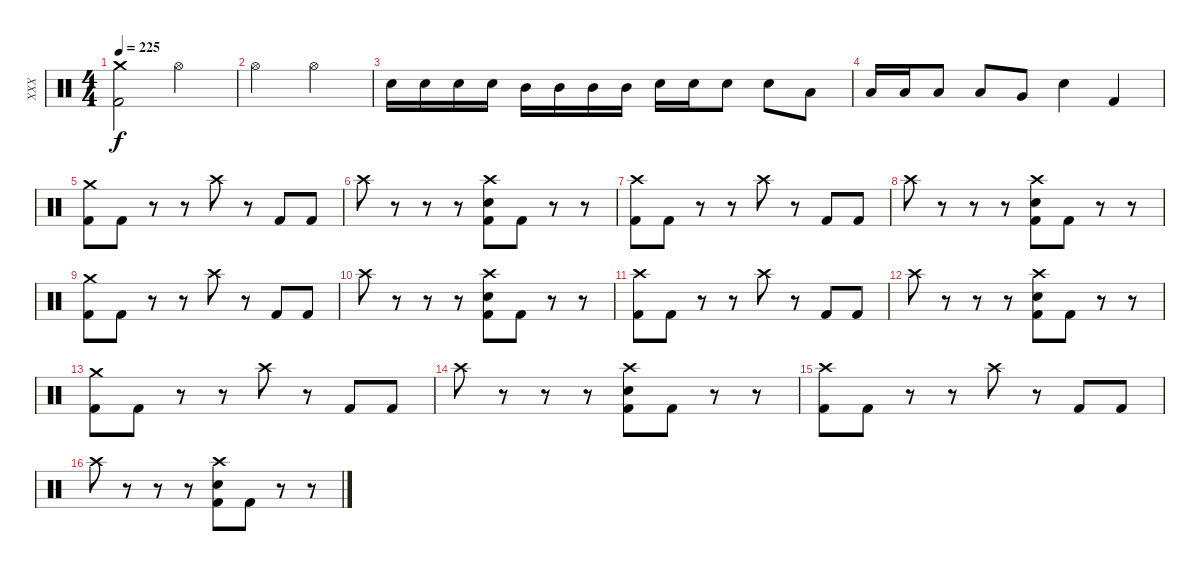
\track ("XXX" "XXX") {instrument percussion}
\staff {score}
\articulation defaults
\ts (4 4)
\tempo 225
\clef neutral
\ks c
("Crash medium (hit)" "Kick (hit) 2").2{dy f} "Hi-Hat (open)".2 |
"Hi-Hat (open)".2 "Hi-Hat (open)".2 |
"Electric Snare (hit)".16 "Electric Snare (hit)".16 "Electric Snare (hit)".16 "Electric Snare (hit)".16 "Mid Tom (hit)".16 "Mid Tom (hit)".16 "Mid Tom (hit)".16 "Mid Tom (hit)".16 "Electric Snare (hit)".16 "Electric Snare (hit)".16 "Electric Snare (hit)".8 "Electric Snare (hit)".8 "Low Tom (hit)".8 |
"Low Tom (hit)".16 "Low Tom (hit)".16 "Low Tom (hit)".8 "Low Tom (hit)".8 "Very Low Tom (hit)".8 "Electric Snare (hit)".4 "Kick (hit) 2".4 |
("Crash medium (hit)" "Kick (hit) 2").8 "Kick (hit) 2".8 r.8 r.8 "Crash high (hit)".8 r.8 "Kick (hit) 2".8 "Kick (hit) 2".8 |
"Crash high (hit)".8 r.8 r.8 r.8 ("Crash high (hit)" "Electric Snare (hit)" "Kick (hit) 2").8 "Kick (hit) 2".8 r.8 r.8 |
("Crash high (hit)" "Kick (hit) 2").8 "Kick (hit) 2".8 r.8 r.8 "Crash high (hit)".8 r.8 "Kick (hit) 2".8 "Kick (hit) 2".8 |
"Crash high (hit)".8 r.8 r.8 r.8 ("Crash high (hit)" "Electric Snare (hit)" "Kick (hit) 2").8 "Kick (hit) 2".8 r.8 r.8 |
("Crash medium (hit)" "Kick (hit) 2").8 "Kick (hit) 2".8 r.8 r.8 "Crash high (hit)".8 r.8 "Kick (hit) 2".8 "Kick (hit) 2".8 |
"Crash high (hit)".8 r.8 r.8 r.8 ("Crash high (hit)" "Electric Snare (hit)" "Kick (hit) 2").8 "Kick (hit) 2".8 r.8 r.8 |
("Crash high (hit)" "Kick (hit) 2").8 "Kick (hit) 2".8 r.8 r.8 "Crash high (hit)".8 r.8 "Kick (hit) 2".8 "Kick (hit) 2".8 |
"Crash high (hit)".8 r.8 r.8 r.8 ("Crash high (hit)" "Electric Snare (hit)" "Kick (hit) 2").8 "Kick (hit) 2".8 r.8 r.8 |
("Crash medium (hit)" "Kick (hit) 2").8 "Kick (hit) 2".8 r.8 r.8 "Crash high (hit)".8 r.8 "Kick (hit) 2".8 "Kick (hit) 2".8 |
"Crash high (hit)".8 r.8 r.8 r.8 ("Crash high (hit)" "Electric Snare (hit)" "Kick (hit) 2").8 "Kick (hit) 2".8 r.8 r.8 |
("Crash high (hit)" "Kick (hit) 2").8 "Kick (hit) 2".8 r.8 r.8 "Crash high (hit)".8 r.8 "Kick (hit) 2".8 "Kick (hit) 2".8 |
"Crash high (hit)".8 r.8 r.8 r.8 ("Crash high (hit)" "Electric Snare (hit)" "Kick (hit) 2").8 "Kick (hit) 2".8 r.8 r.8
